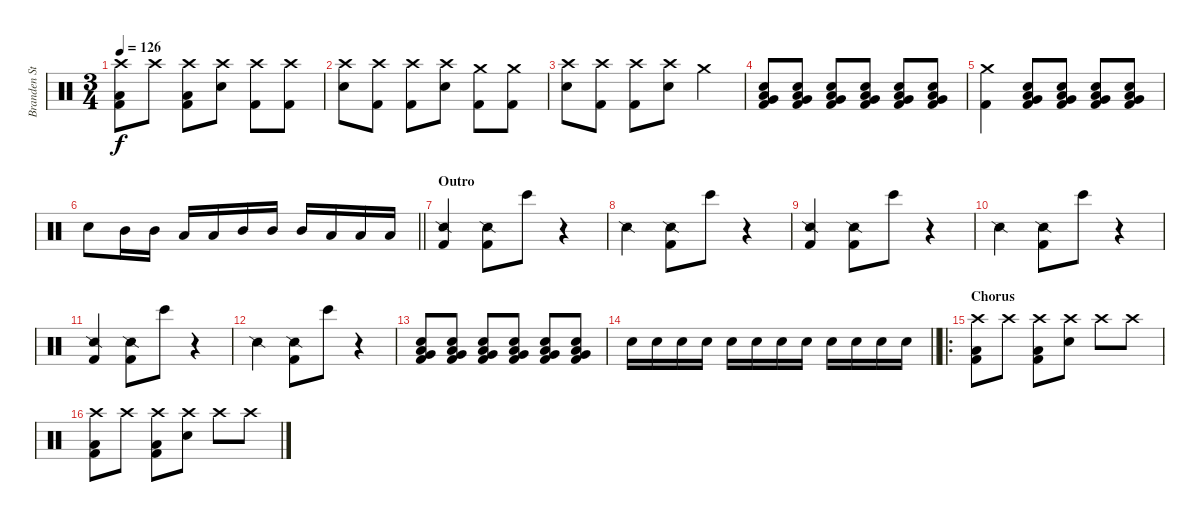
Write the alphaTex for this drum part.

\track ("Branden Steineckert [Drums]" "Branden St") {instrument percussion}
\staff {score}
\articulation defaults
\ts (3 4)
\tempo 126
\clef neutral
\ks c
("Crash high (hit)" "Low Floor Tom (hit)" "Kick (hit) 2").8{dy f} "Crash high (hit)".8 ("Crash high (hit)" "Low Floor Tom (hit)" "Kick (hit) 2").8 ("Crash high (hit)" "Electric Snare (hit)").8 ("Crash high (hit)" "Kick (hit) 2").8 ("Crash high (hit)" "Kick (hit) 2").8 |
("Crash high (hit)" "Electric Snare (hit)").8 ("Crash high (hit)" "Kick (hit) 2").8 ("Crash high (hit)" "Kick (hit) 2").8 ("Crash high (hit)" "Electric Snare (hit)").8 ("Crash medium (hit)" "Kick (hit) 2").8 ("Crash medium (hit)" "Kick (hit) 2").8 |
("Crash high (hit)" "Electric Snare (hit)").8 ("Crash high (hit)" "Kick (hit) 2").8 ("Crash high (hit)" "Kick (hit) 2").8 ("Crash high (hit)" "Electric Snare (hit)").8 "Crash medium (hit)".4 |
("Electric Snare (hit)" "Very Low Tom (hit)" "Low Floor Tom (hit)" "Kick (hit) 2").8 ("Electric Snare (hit)" "Very Low Tom (hit)" "Low Floor Tom (hit)" "Kick (hit) 2").8 ("Electric Snare (hit)" "Very Low Tom (hit)" "Low Floor Tom (hit)" "Kick (hit) 2").8 ("Electric Snare (hit)" "Very Low Tom (hit)" "Low Floor Tom (hit)" "Kick (hit) 2").8 ("Electric Snare (hit)" "Very Low Tom (hit)" "Low Floor Tom (hit)" "Kick (hit) 2").8 ("Electric Snare (hit)" "Very Low Tom (hit)" "Low Floor Tom (hit)" "Kick (hit) 2").8 |
("Crash medium (hit)" "Kick (hit) 2").4 ("Electric Snare (hit)" "Very Low Tom (hit)" "Low Floor Tom (hit)" "Kick (hit) 2").8 ("Electric Snare (hit)" "Very Low Tom (hit)" "Low Floor Tom (hit)" "Kick (hit) 2").8 ("Electric Snare (hit)" "Very Low Tom (hit)" "Low Floor Tom (hit)" "Kick (hit) 2").8 ("Electric Snare (hit)" "Very Low Tom (hit)" "Low Floor Tom (hit)" "Kick (hit) 2").8 |
\barLineRight lightlight "Electric Snare (hit)".8 "Mid Tom (hit)".16 "Mid Tom (hit)".16 "Low Tom (hit)".16 "Low Tom (hit)".16 "Mid Tom (hit)".16 "Mid Tom (hit)".16 "Mid Tom (hit)".16 "Low Tom (hit)".16 "Low Tom (hit)".16 "Low Tom (hit)".16
|
\section ("" "Outro")
("Snare (side stick) 2" "Kick (hit) 2").4 ("Snare (side stick) 2" "Kick (hit) 2").8 "Bongo High (hit)".8 r.4 |
"Snare (side stick) 2".4 ("Snare (side stick) 2" "Kick (hit) 2").8 "Bongo High (hit)".8 r.4 |
("Snare (side stick) 2" "Kick (hit) 2").4 ("Snare (side stick) 2" "Kick (hit) 2").8 "Bongo High (hit)".8 r.4 |
"Snare (side stick) 2".4 ("Snare (side stick) 2" "Kick (hit) 2").8 "Bongo High (hit)".8 r.4 |
("Snare (side stick) 2" "Kick (hit) 2").4 ("Snare (side stick) 2" "Kick (hit) 2").8 "Bongo High (hit)".8 r.4 |
"Snare (side stick) 2".4 ("Snare (side stick) 2" "Kick (hit) 2").8 "Bongo High (hit)".8 r.4 |
("Electric Snare (hit)" "Very Low Tom (hit)" "Low Floor Tom (hit)" "Kick (hit) 2").8 ("Electric Snare (hit)" "Very Low Tom (hit)" "Low Floor Tom (hit)" "Kick (hit) 2").8 ("Electric Snare (hit)" "Very Low Tom (hit)" "Low Floor Tom (hit)" "Kick (hit) 2").8 ("Electric Snare (hit)" "Very Low Tom (hit)" "Low Floor Tom (hit)" "Kick (hit) 2").8 ("Electric Snare (hit)" "Very Low Tom (hit)" "Low Floor Tom (hit)" "Kick (hit) 2").8 ("Electric Snare (hit)" "Very Low Tom (hit)" "Low Floor Tom (hit)" "Kick (hit) 2").8 |
\barLineRight lightlight "Electric Snare (hit)".16 "Electric Snare (hit)".16 "Electric Snare (hit)".16 "Electric Snare (hit)".16 "Electric Snare (hit)".16 "Electric Snare (hit)".16 "Electric Snare (hit)".16 "Electric Snare (hit)".16 "Electric Snare (hit)".16 "Electric Snare (hit)".16 "Electric Snare (hit)".16 "Electric Snare (hit)".16
|
\ro
\section ("" "Chorus")
("Crash high (hit)" "Low Floor Tom (hit)" "Kick (hit) 2").8 "Crash high (hit)".8 ("Crash high (hit)" "Low Floor Tom (hit)" "Kick (hit) 2").8 ("Crash high (hit)" "Electric Snare (hit)").8 "Crash high (hit)".8 "Crash high (hit)".8 |
("Crash high (hit)" "Low Floor Tom (hit)" "Kick (hit) 2").8 "Crash high (hit)".8 ("Crash high (hit)" "Low Floor Tom (hit)" "Kick (hit) 2").8 ("Crash high (hit)" "Electric Snare (hit)").8 "Crash high (hit)".8 "Crash high (hit)".8
